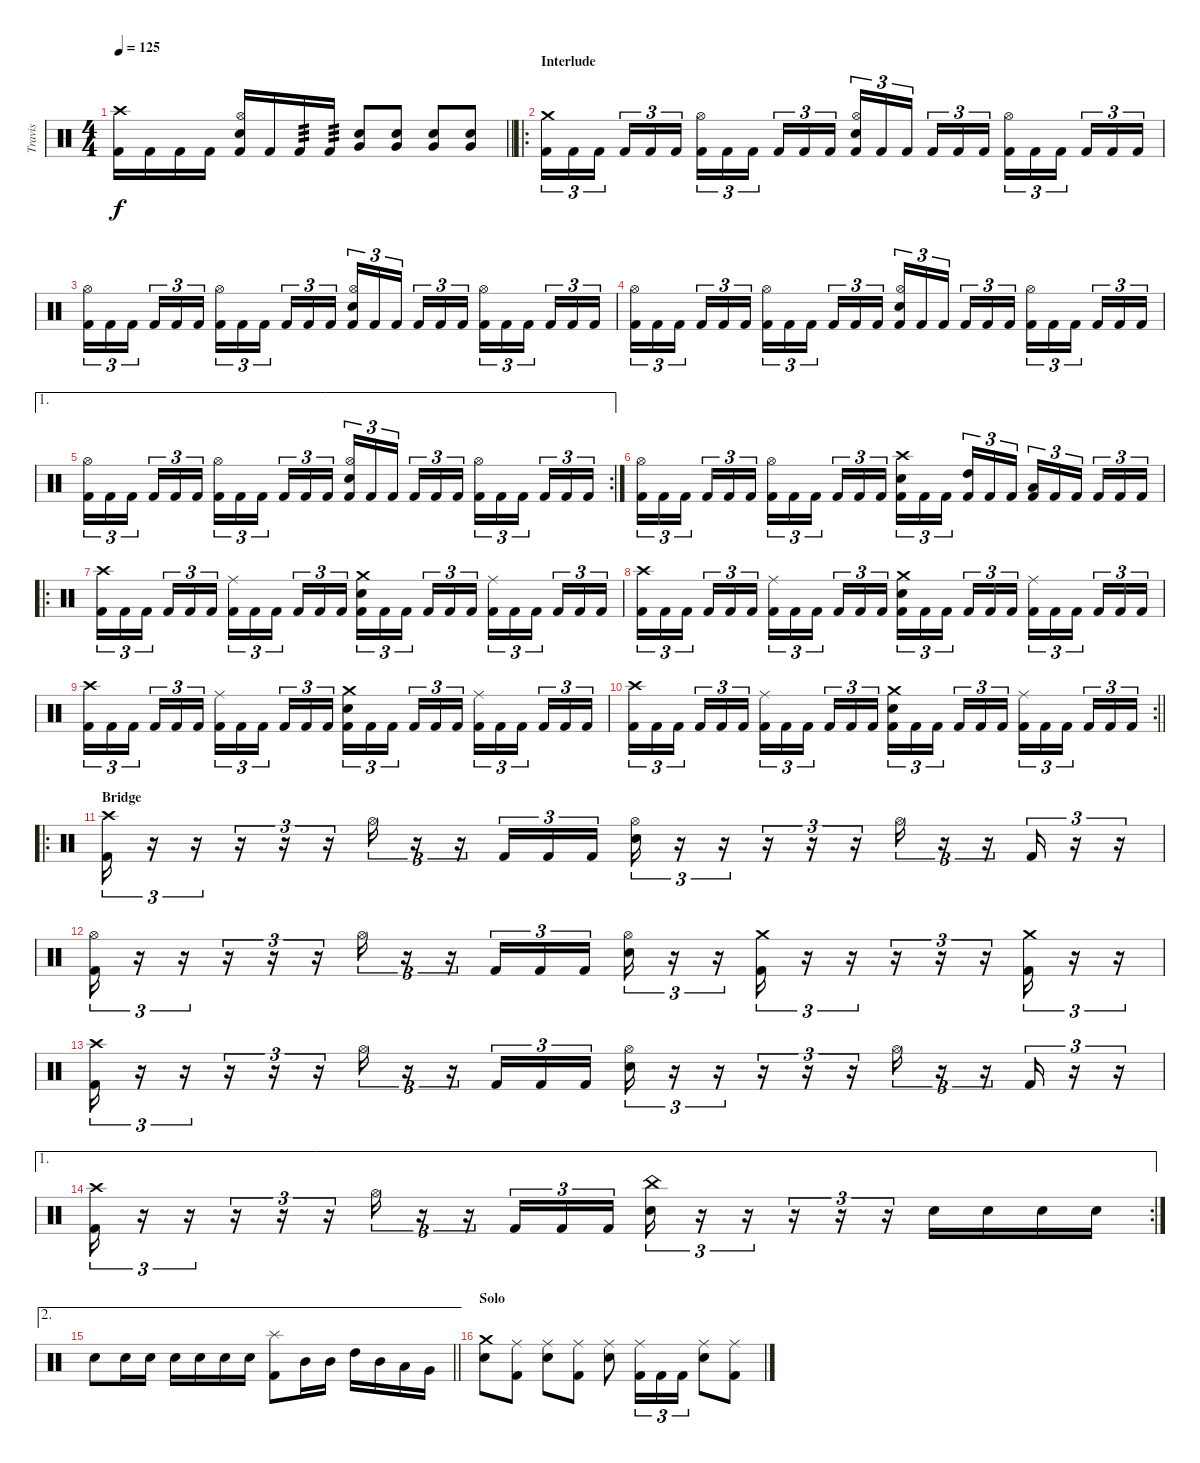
\track ("Travis" "Travis") {instrument percussion}
\staff {score}
\articulation defaults
\ts (4 4)
\tempo 125
\clef neutral
\barLineRight lightlight
\ks c
("Crash high (hit)" "Kick (hit) 2").16{dy f} "Kick (hit) 2".16 "Kick (hit) 2".16 "Kick (hit) 2".16 ("Hi-Hat (open)" "Electric Snare (hit)" "Kick (hit) 2").16 "Kick (hit) 2".16 "Kick (hit) 2".16{tp 3} "Kick (hit) 2".16{tp 3} ("Electric Snare (hit)" "Very Low Tom (hit)").8 ("Electric Snare (hit)" "Very Low Tom (hit)").8 ("Electric Snare (hit)" "Very Low Tom (hit)").8 ("Electric Snare (hit)" "Very Low Tom (hit)").8 |
\ro
\section ("" "Interlude")
("Crash medium (hit)" "Kick (hit) 2").16{tu (3 2)} "Kick (hit) 2".16{tu (3 2)} "Kick (hit) 2".16{tu (3 2) beam splitsecondary} "Kick (hit) 2".16{tu (3 2)} "Kick (hit) 2".16{tu (3 2)} "Kick (hit) 2".16{tu (3 2)} ("Hi-Hat (open)" "Kick (hit) 2").16{tu (3 2)} "Kick (hit) 2".16{tu (3 2)} "Kick (hit) 2".16{tu (3 2) beam splitsecondary} "Kick (hit) 2".16{tu (3 2)} "Kick (hit) 2".16{tu (3 2)} "Kick (hit) 2".16{tu (3 2)} ("Hi-Hat (open)" "Electric Snare (hit)" "Kick (hit) 2").16{tu (3 2)} "Kick (hit) 2".16{tu (3 2)} "Kick (hit) 2".16{tu (3 2) beam splitsecondary} "Kick (hit) 2".16{tu (3 2)} "Kick (hit) 2".16{tu (3 2)} "Kick (hit) 2".16{tu (3 2)} ("Hi-Hat (open)" "Kick (hit) 2").16{tu (3 2)} "Kick (hit) 2".16{tu (3 2)} "Kick (hit) 2".16{tu (3 2) beam splitsecondary} "Kick (hit) 2".16{tu (3 2)} "Kick (hit) 2".16{tu (3 2)} "Kick (hit) 2".16{tu (3 2)} |
("Hi-Hat (open)" "Kick (hit) 2").16{tu (3 2)} "Kick (hit) 2".16{tu (3 2)} "Kick (hit) 2".16{tu (3 2) beam splitsecondary} "Kick (hit) 2".16{tu (3 2)} "Kick (hit) 2".16{tu (3 2)} "Kick (hit) 2".16{tu (3 2)} ("Hi-Hat (open)" "Kick (hit) 2").16{tu (3 2)} "Kick (hit) 2".16{tu (3 2)} "Kick (hit) 2".16{tu (3 2) beam splitsecondary} "Kick (hit) 2".16{tu (3 2)} "Kick (hit) 2".16{tu (3 2)} "Kick (hit) 2".16{tu (3 2)} ("Hi-Hat (open)" "Electric Snare (hit)" "Kick (hit) 2").16{tu (3 2)} "Kick (hit) 2".16{tu (3 2)} "Kick (hit) 2".16{tu (3 2) beam splitsecondary} "Kick (hit) 2".16{tu (3 2)} "Kick (hit) 2".16{tu (3 2)} "Kick (hit) 2".16{tu (3 2)} ("Hi-Hat (open)" "Kick (hit) 2").16{tu (3 2)} "Kick (hit) 2".16{tu (3 2)} "Kick (hit) 2".16{tu (3 2) beam splitsecondary} "Kick (hit) 2".16{tu (3 2)} "Kick (hit) 2".16{tu (3 2)} "Kick (hit) 2".16{tu (3 2)} |
("Hi-Hat (open)" "Kick (hit) 2").16{tu (3 2)} "Kick (hit) 2".16{tu (3 2)} "Kick (hit) 2".16{tu (3 2) beam splitsecondary} "Kick (hit) 2".16{tu (3 2)} "Kick (hit) 2".16{tu (3 2)} "Kick (hit) 2".16{tu (3 2)} ("Hi-Hat (open)" "Kick (hit) 2").16{tu (3 2)} "Kick (hit) 2".16{tu (3 2)} "Kick (hit) 2".16{tu (3 2) beam splitsecondary} "Kick (hit) 2".16{tu (3 2)} "Kick (hit) 2".16{tu (3 2)} "Kick (hit) 2".16{tu (3 2)} ("Hi-Hat (open)" "Electric Snare (hit)" "Kick (hit) 2").16{tu (3 2)} "Kick (hit) 2".16{tu (3 2)} "Kick (hit) 2".16{tu (3 2) beam splitsecondary} "Kick (hit) 2".16{tu (3 2)} "Kick (hit) 2".16{tu (3 2)} "Kick (hit) 2".16{tu (3 2)} ("Hi-Hat (open)" "Kick (hit) 2").16{tu (3 2)} "Kick (hit) 2".16{tu (3 2)} "Kick (hit) 2".16{tu (3 2) beam splitsecondary} "Kick (hit) 2".16{tu (3 2)} "Kick (hit) 2".16{tu (3 2)} "Kick (hit) 2".16{tu (3 2)} |
\ae 1
\rc 2
("Hi-Hat (open)" "Kick (hit) 2").16{tu (3 2)} "Kick (hit) 2".16{tu (3 2)} "Kick (hit) 2".16{tu (3 2) beam splitsecondary} "Kick (hit) 2".16{tu (3 2)} "Kick (hit) 2".16{tu (3 2)} "Kick (hit) 2".16{tu (3 2)} ("Hi-Hat (open)" "Kick (hit) 2").16{tu (3 2)} "Kick (hit) 2".16{tu (3 2)} "Kick (hit) 2".16{tu (3 2) beam splitsecondary} "Kick (hit) 2".16{tu (3 2)} "Kick (hit) 2".16{tu (3 2)} "Kick (hit) 2".16{tu (3 2)} ("Hi-Hat (open)" "Electric Snare (hit)" "Kick (hit) 2").16{tu (3 2)} "Kick (hit) 2".16{tu (3 2)} "Kick (hit) 2".16{tu (3 2) beam splitsecondary} "Kick (hit) 2".16{tu (3 2)} "Kick (hit) 2".16{tu (3 2)} "Kick (hit) 2".16{tu (3 2)} ("Hi-Hat (open)" "Kick (hit) 2").16{tu (3 2)} "Kick (hit) 2".16{tu (3 2)} "Kick (hit) 2".16{tu (3 2) beam splitsecondary} "Kick (hit) 2".16{tu (3 2)} "Kick (hit) 2".16{tu (3 2)} "Kick (hit) 2".16{tu (3 2)} |
("Hi-Hat (open)" "Kick (hit) 2").16{tu (3 2)} "Kick (hit) 2".16{tu (3 2)} "Kick (hit) 2".16{tu (3 2) beam splitsecondary} "Kick (hit) 2".16{tu (3 2)} "Kick (hit) 2".16{tu (3 2)} "Kick (hit) 2".16{tu (3 2)} ("Hi-Hat (open)" "Kick (hit) 2").16{tu (3 2)} "Kick (hit) 2".16{tu (3 2)} "Kick (hit) 2".16{tu (3 2) beam splitsecondary} "Kick (hit) 2".16{tu (3 2)} "Kick (hit) 2".16{tu (3 2)} "Kick (hit) 2".16{tu (3 2)} ("Crash high (hit)" "Snare (hit) 2" "Kick (hit) 2").16{tu (3 2)} "Kick (hit) 2".16{tu (3 2)} "Kick (hit) 2".16{tu (3 2) beam splitsecondary} ("High Tom (hit)" "Kick (hit) 2").16{tu (3 2)} "Kick (hit) 2".16{tu (3 2)} "Kick (hit) 2".16{tu (3 2)} ("Low Tom (hit)" "Kick (hit) 2").16{tu (3 2)} "Kick (hit) 2".16{tu (3 2)} "Kick (hit) 2".16{tu (3 2) beam splitsecondary} "Kick (hit) 2".16{tu (3 2)} "Kick (hit) 2".16{tu (3 2)} "Kick (hit) 2".16{tu (3 2)} |
\ro
("Crash high (hit)" "Kick (hit) 2").16{tu (3 2)} "Kick (hit) 2".16{tu (3 2)} "Kick (hit) 2".16{tu (3 2) beam splitsecondary} "Kick (hit) 2".16{tu (3 2)} "Kick (hit) 2".16{tu (3 2)} "Kick (hit) 2".16{tu (3 2)} ("Ride (middle)" "Kick (hit) 2").16{tu (3 2)} "Kick (hit) 2".16{tu (3 2)} "Kick (hit) 2".16{tu (3 2) beam splitsecondary} "Kick (hit) 2".16{tu (3 2)} "Kick (hit) 2".16{tu (3 2)} "Kick (hit) 2".16{tu (3 2)} ("Crash medium (hit)" "Electric Snare (hit)" "Kick (hit) 2").16{tu (3 2)} "Kick (hit) 2".16{tu (3 2)} "Kick (hit) 2".16{tu (3 2) beam splitsecondary} "Kick (hit) 2".16{tu (3 2)} "Kick (hit) 2".16{tu (3 2)} "Kick (hit) 2".16{tu (3 2)} ("Ride (middle)" "Kick (hit) 2").16{tu (3 2)} "Kick (hit) 2".16{tu (3 2)} "Kick (hit) 2".16{tu (3 2) beam splitsecondary} "Kick (hit) 2".16{tu (3 2)} "Kick (hit) 2".16{tu (3 2)} "Kick (hit) 2".16{tu (3 2)} |
("Crash high (hit)" "Kick (hit) 2").16{tu (3 2)} "Kick (hit) 2".16{tu (3 2)} "Kick (hit) 2".16{tu (3 2) beam splitsecondary} "Kick (hit) 2".16{tu (3 2)} "Kick (hit) 2".16{tu (3 2)} "Kick (hit) 2".16{tu (3 2)} ("Ride (middle)" "Kick (hit) 2").16{tu (3 2)} "Kick (hit) 2".16{tu (3 2)} "Kick (hit) 2".16{tu (3 2) beam splitsecondary} "Kick (hit) 2".16{tu (3 2)} "Kick (hit) 2".16{tu (3 2)} "Kick (hit) 2".16{tu (3 2)} ("Crash medium (hit)" "Electric Snare (hit)" "Kick (hit) 2").16{tu (3 2)} "Kick (hit) 2".16{tu (3 2)} "Kick (hit) 2".16{tu (3 2) beam splitsecondary} "Kick (hit) 2".16{tu (3 2)} "Kick (hit) 2".16{tu (3 2)} "Kick (hit) 2".16{tu (3 2)} ("Ride (middle)" "Kick (hit) 2").16{tu (3 2)} "Kick (hit) 2".16{tu (3 2)} "Kick (hit) 2".16{tu (3 2) beam splitsecondary} "Kick (hit) 2".16{tu (3 2)} "Kick (hit) 2".16{tu (3 2)} "Kick (hit) 2".16{tu (3 2)} |
("Crash high (hit)" "Kick (hit) 2").16{tu (3 2)} "Kick (hit) 2".16{tu (3 2)} "Kick (hit) 2".16{tu (3 2) beam splitsecondary} "Kick (hit) 2".16{tu (3 2)} "Kick (hit) 2".16{tu (3 2)} "Kick (hit) 2".16{tu (3 2)} ("Ride (middle)" "Kick (hit) 2").16{tu (3 2)} "Kick (hit) 2".16{tu (3 2)} "Kick (hit) 2".16{tu (3 2) beam splitsecondary} "Kick (hit) 2".16{tu (3 2)} "Kick (hit) 2".16{tu (3 2)} "Kick (hit) 2".16{tu (3 2)} ("Crash medium (hit)" "Electric Snare (hit)" "Kick (hit) 2").16{tu (3 2)} "Kick (hit) 2".16{tu (3 2)} "Kick (hit) 2".16{tu (3 2) beam splitsecondary} "Kick (hit) 2".16{tu (3 2)} "Kick (hit) 2".16{tu (3 2)} "Kick (hit) 2".16{tu (3 2)} ("Ride (middle)" "Kick (hit) 2").16{tu (3 2)} "Kick (hit) 2".16{tu (3 2)} "Kick (hit) 2".16{tu (3 2) beam splitsecondary} "Kick (hit) 2".16{tu (3 2)} "Kick (hit) 2".16{tu (3 2)} "Kick (hit) 2".16{tu (3 2)} |
\rc 2
\barLineRight lightlight
("Crash high (hit)" "Kick (hit) 2").16{tu (3 2)} "Kick (hit) 2".16{tu (3 2)} "Kick (hit) 2".16{tu (3 2) beam splitsecondary} "Kick (hit) 2".16{tu (3 2)} "Kick (hit) 2".16{tu (3 2)} "Kick (hit) 2".16{tu (3 2)} ("Ride (middle)" "Kick (hit) 2").16{tu (3 2)} "Kick (hit) 2".16{tu (3 2)} "Kick (hit) 2".16{tu (3 2) beam splitsecondary} "Kick (hit) 2".16{tu (3 2)} "Kick (hit) 2".16{tu (3 2)} "Kick (hit) 2".16{tu (3 2)} ("Crash medium (hit)" "Electric Snare (hit)" "Kick (hit) 2").16{tu (3 2)} "Kick (hit) 2".16{tu (3 2)} "Kick (hit) 2".16{tu (3 2) beam splitsecondary} "Kick (hit) 2".16{tu (3 2)} "Kick (hit) 2".16{tu (3 2)} "Kick (hit) 2".16{tu (3 2)} ("Ride (middle)" "Kick (hit) 2").16{tu (3 2)} "Kick (hit) 2".16{tu (3 2)} "Kick (hit) 2".16{tu (3 2) beam splitsecondary} "Kick (hit) 2".16{tu (3 2)} "Kick (hit) 2".16{tu (3 2)} "Kick (hit) 2".16{tu (3 2)} |
\ro
\section ("" "Bridge")
("Crash high (hit)" "Kick (hit) 2").16{tu (3 2)} r.16{tu (3 2)} r.16{tu (3 2)} r.16{tu (3 2)} r.16{tu (3 2)} r.16{tu (3 2)} "Hi-Hat (open)".16{tu (3 2)} r.16{tu (3 2)} r.16{tu (3 2)} "Kick (hit) 2".16{tu (3 2)} "Kick (hit) 2".16{tu (3 2)} "Kick (hit) 2".16{tu (3 2)} ("Hi-Hat (open)" "Electric Snare (hit)").16{tu (3 2)} r.16{tu (3 2)} r.16{tu (3 2)} r.16{tu (3 2)} r.16{tu (3 2)} r.16{tu (3 2)} "Hi-Hat (open)".16{tu (3 2)} r.16{tu (3 2)} r.16{tu (3 2)} "Kick (hit) 2".16{tu (3 2)} r.16{tu (3 2)} r.16{tu (3 2)} |
("Hi-Hat (open)" "Kick (hit) 2").16{tu (3 2)} r.16{tu (3 2)} r.16{tu (3 2)} r.16{tu (3 2)} r.16{tu (3 2)} r.16{tu (3 2)} "Hi-Hat (open)".16{tu (3 2)} r.16{tu (3 2)} r.16{tu (3 2)} "Kick (hit) 2".16{tu (3 2)} "Kick (hit) 2".16{tu (3 2)} "Kick (hit) 2".16{tu (3 2)} ("Hi-Hat (open)" "Electric Snare (hit)").16{tu (3 2)} r.16{tu (3 2)} r.16{tu (3 2)} ("Kick (hit) 2" "Crash medium (hit)").16{tu (3 2)} r.16{tu (3 2)} r.16{tu (3 2)} r.16{tu (3 2) volume 0} r.16{tu (3 2)} r.16{tu (3 2)} ("Crash medium (hit)" "Kick (hit) 2").16{tu (3 2) volume 16} r.16{tu (3 2)} r.16{tu (3 2)} |
("Crash high (hit)" "Kick (hit) 2").16{tu (3 2)} r.16{tu (3 2)} r.16{tu (3 2)} r.16{tu (3 2)} r.16{tu (3 2)} r.16{tu (3 2)} "Hi-Hat (open)".16{tu (3 2)} r.16{tu (3 2)} r.16{tu (3 2)} "Kick (hit) 2".16{tu (3 2)} "Kick (hit) 2".16{tu (3 2)} "Kick (hit) 2".16{tu (3 2)} ("Hi-Hat (open)" "Electric Snare (hit)").16{tu (3 2)} r.16{tu (3 2)} r.16{tu (3 2)} r.16{tu (3 2)} r.16{tu (3 2)} r.16{tu (3 2)} "Hi-Hat (open)".16{tu (3 2)} r.16{tu (3 2)} r.16{tu (3 2)} "Kick (hit) 2".16{tu (3 2)} r.16{tu (3 2)} r.16{tu (3 2)} |
\ae 1
\rc 2
("Crash high (hit)" "Kick (hit) 2").16{tu (3 2)} r.16{tu (3 2)} r.16{tu (3 2)} r.16{tu (3 2)} r.16{tu (3 2)} r.16{tu (3 2)} "Hi-Hat (open)".16{tu (3 2)} r.16{tu (3 2)} r.16{tu (3 2)} "Kick (hit) 2".16{tu (3 2)} "Kick (hit) 2".16{tu (3 2)} "Kick (hit) 2".16{tu (3 2)} ("China (hit)" "Electric Snare (hit)").16{tu (3 2)} r.16{tu (3 2)} r.16{tu (3 2)} r.16{tu (3 2)} r.16{tu (3 2)} r.16{tu (3 2)} "Electric Snare (hit)".16 "Electric Snare (hit)".16 "Electric Snare (hit)".16 "Electric Snare (hit)".16 |
\ae 2
\barLineRight lightlight "Electric Snare (hit)".8 "Electric Snare (hit)".16 "Electric Snare (hit)".16 "Electric Snare (hit)".16 "Electric Snare (hit)".16 "Electric Snare (hit)".16 "Electric Snare (hit)".16
("Splash (hit)" "Kick (hit) 2").8 "Mid Tom (hit)".16 "Mid Tom (hit)".16 "High Tom (hit)".16 "Mid Tom (hit)".16 "Low Tom (hit)".16 "Very Low Tom (hit)".16 |
\section ("" "Solo")
("Crash medium (hit)" "Electric Snare (hit)").8 ("Ride (middle)" "Kick (hit) 2").8 ("Ride (middle)" "Electric Snare (hit)").8 ("Ride (middle)" "Kick (hit) 2").8 ("Ride (middle)" "Electric Snare (hit)").8 ("Ride (middle)" "Kick (hit) 2").16{tu (3 2)} "Kick (hit) 2".16{tu (3 2)} "Kick (hit) 2".16{tu (3 2)} ("Ride (middle)" "Electric Snare (hit)").8 ("Ride (middle)" "Kick (hit) 2").8
